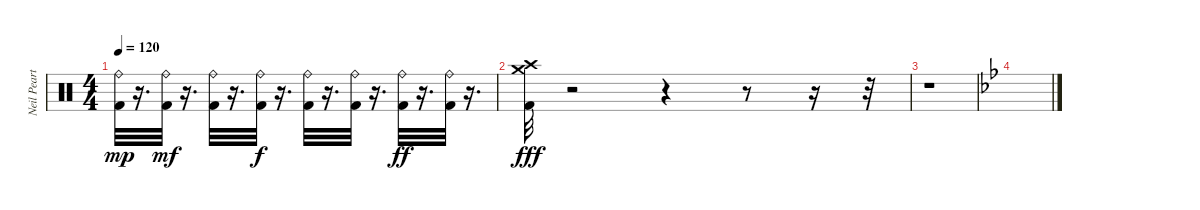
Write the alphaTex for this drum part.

\track ("Neil Peart" "Neil Peart") {instrument percussion}
\staff {score}
\articulation defaults
\ts (4 4)
\tempo 120
\clef neutral
\ks c
("Ride (bell)" "Kick (hit) 2").32{dy mp} r.16{d} ("Ride (bell)" "Kick (hit) 2").32{dy mf} r.16{d} ("Ride (bell)" "Kick (hit) 2").32 r.16{d} ("Ride (bell)" "Kick (hit) 2").32{dy f} r.16{d} ("Ride (bell)" "Kick (hit) 2").32 r.16{d} ("Ride (bell)" "Kick (hit) 2").32 r.16{d} ("Ride (bell)" "Kick (hit) 2").32{dy ff} r.16{d} ("Ride (bell)" "Kick (hit) 2").32 r.16{d} |
("Crash medium (hit)" "Crash high (hit)" "Kick (hit) 2").32{dy fff} r.2 r.4 r.8 r.16 r.32 |
r.1 |
\ks bb
